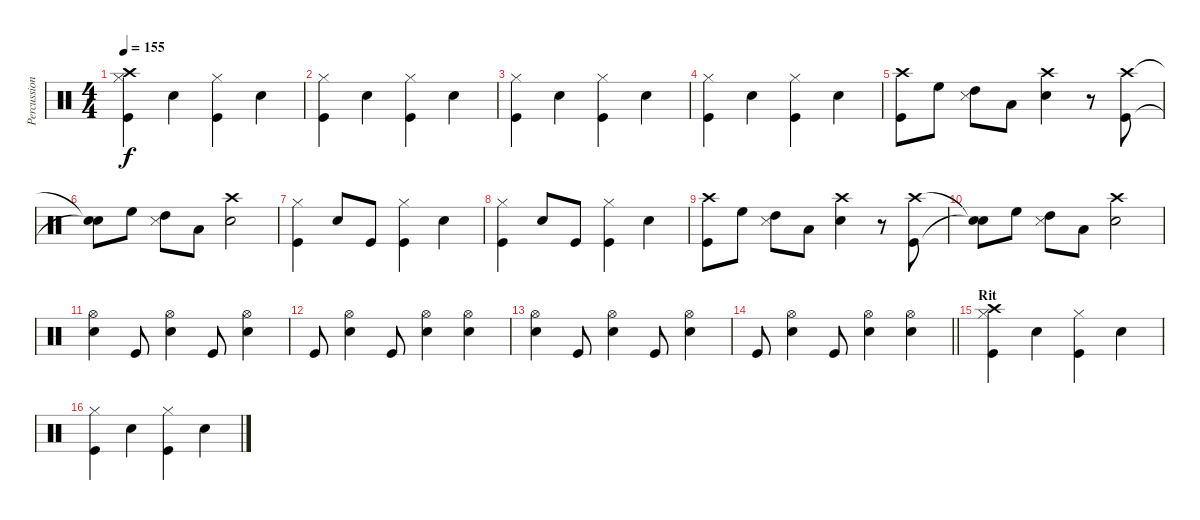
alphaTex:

\track ("Percussioni" "Percussion") {instrument percussion}
\staff {score}
\articulation defaults
\ts (4 4)
\tempo 155
\clef neutral
\ks c
("Hi-Hat (closed)" "Kick (hit)" "Crash high (hit)").4{dy f} "Snare (hit) 2".4 ("Hi-Hat (closed)" "Kick (hit)").4 "Snare (hit) 2".4 |
("Hi-Hat (closed)" "Kick (hit)").4 "Snare (hit) 2".4 ("Hi-Hat (closed)" "Kick (hit)").4 "Snare (hit) 2".4 |
("Hi-Hat (closed)" "Kick (hit)").4 "Snare (hit) 2".4 ("Hi-Hat (closed)" "Kick (hit)").4 "Snare (hit) 2".4 |
("Hi-Hat (closed)" "Kick (hit)").4 "Snare (hit) 2".4 ("Hi-Hat (closed)" "Kick (hit)").4 "Snare (hit) 2".4 |
("Crash high (hit)" "Kick (hit)").8 "High Floor Tom (hit)".8 ("High Tom (hit)" "Snare (side stick) 3").8 "Low Tom (hit)".8 ("Crash high (hit)" "Snare (hit) 2").4 r.8 ("Crash high (hit)" "Kick (hit)").8 |
("Snare (hit)"{t} "Snare (hit)"{t}).8 "High Floor Tom (hit)".8 ("High Tom (hit)" "Snare (side stick) 3").8 "Low Tom (hit)".8 ("Crash high (hit)" "Snare (hit) 2").2 |
("Hi-Hat (closed)" "Kick (hit)").4 "Snare (hit) 2".8 "Kick (hit)".8 ("Hi-Hat (closed)" "Kick (hit)").4 "Snare (hit) 2".4 |
("Hi-Hat (closed)" "Kick (hit)").4 "Snare (hit) 2".8 "Kick (hit)".8 ("Hi-Hat (closed)" "Kick (hit)").4 "Snare (hit) 2".4 |
("Crash high (hit)" "Kick (hit)").8 "High Floor Tom (hit)".8 ("High Tom (hit)" "Snare (side stick) 3").8 "Low Tom (hit)".8 ("Crash high (hit)" "Snare (hit) 2").4 r.8 ("Crash high (hit)" "Kick (hit)").8 |
("Snare (hit)"{t} "Snare (hit)"{t}).8 "High Floor Tom (hit)".8 ("High Tom (hit)" "Snare (side stick) 3").8 "Low Tom (hit)".8 ("Crash high (hit)" "Snare (hit) 2").2 |
("Snare (hit) 2" "Hi-Hat (open)").4 "Kick (hit)".8 ("Snare (hit) 2" "Hi-Hat (open)").4 "Kick (hit)".8 ("Snare (hit) 2" "Hi-Hat (open)").4 |
"Kick (hit)".8 ("Snare (hit) 2" "Hi-Hat (open)").4 "Kick (hit)".8 ("Snare (hit) 2" "Hi-Hat (open)").4 ("Snare (hit) 2" "Hi-Hat (open)").4 |
("Snare (hit) 2" "Hi-Hat (open)").4 "Kick (hit)".8 ("Snare (hit) 2" "Hi-Hat (open)").4 "Kick (hit)".8 ("Snare (hit) 2" "Hi-Hat (open)").4 |
\barLineRight lightlight "Kick (hit)".8
("Snare (hit) 2" "Hi-Hat (open)").4 "Kick (hit)".8 ("Snare (hit) 2" "Hi-Hat (open)").4 ("Snare (hit) 2" "Hi-Hat (open)").4 |
\section ("" "Rit")
("Hi-Hat (closed)" "Kick (hit)" "Crash high (hit)").4 "Snare (hit) 2".4 ("Hi-Hat (closed)" "Kick (hit)").4 "Snare (hit) 2".4 |
("Hi-Hat (closed)" "Kick (hit)").4 "Snare (hit) 2".4 ("Hi-Hat (closed)" "Kick (hit)").4 "Snare (hit) 2".4
